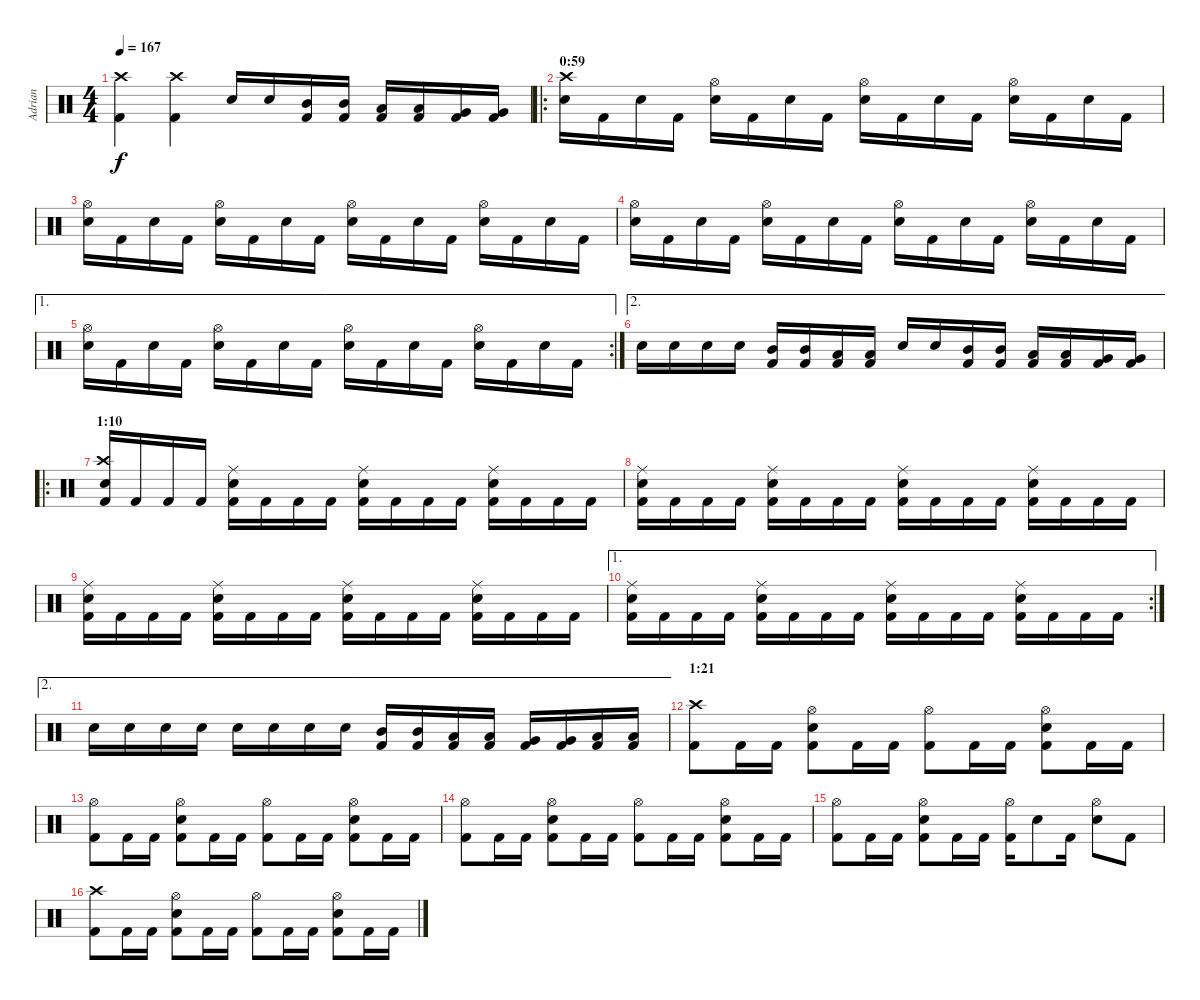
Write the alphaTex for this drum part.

\track ("Adrian" "Adrian") {instrument percussion}
\staff {score}
\articulation defaults
\ts (4 4)
\tempo 167
\clef neutral
\ks c
("Kick (hit) 2" "Crash high (hit)").4{dy f} ("Kick (hit) 2" "Crash high (hit)").4 "Snare (hit) 2".16 "Snare (hit) 2".16 ("Kick (hit) 2" "Mid Tom (hit)").16 ("Kick (hit) 2" "Mid Tom (hit)").16 ("Kick (hit) 2" "Low Tom (hit)").16 ("Kick (hit) 2" "Low Tom (hit)").16 ("Kick (hit) 2" "Very Low Tom (hit)").16 ("Kick (hit) 2" "Very Low Tom (hit)").16 |
\ro
\section ("" "0:59")
("Snare (hit) 2" "Crash high (hit)").16 "Kick (hit) 2".16 "Snare (hit) 2".16 "Kick (hit) 2".16 ("Snare (hit) 2" "Hi-Hat (open)").16 "Kick (hit) 2".16 "Snare (hit) 2".16 "Kick (hit) 2".16 ("Snare (hit) 2" "Hi-Hat (open)").16 "Kick (hit) 2".16 "Snare (hit) 2".16 "Kick (hit) 2".16 ("Snare (hit) 2" "Hi-Hat (open)").16 "Kick (hit) 2".16 "Snare (hit) 2".16 "Kick (hit) 2".16 |
("Snare (hit) 2" "Hi-Hat (open)").16 "Kick (hit) 2".16 "Snare (hit) 2".16 "Kick (hit) 2".16 ("Snare (hit) 2" "Hi-Hat (open)").16 "Kick (hit) 2".16 "Snare (hit) 2".16 "Kick (hit) 2".16 ("Snare (hit) 2" "Hi-Hat (open)").16 "Kick (hit) 2".16 "Snare (hit) 2".16 "Kick (hit) 2".16 ("Snare (hit) 2" "Hi-Hat (open)").16 "Kick (hit) 2".16 "Snare (hit) 2".16 "Kick (hit) 2".16 |
("Snare (hit) 2" "Hi-Hat (open)").16 "Kick (hit) 2".16 "Snare (hit) 2".16 "Kick (hit) 2".16 ("Snare (hit) 2" "Hi-Hat (open)").16 "Kick (hit) 2".16 "Snare (hit) 2".16 "Kick (hit) 2".16 ("Snare (hit) 2" "Hi-Hat (open)").16 "Kick (hit) 2".16 "Snare (hit) 2".16 "Kick (hit) 2".16 ("Snare (hit) 2" "Hi-Hat (open)").16 "Kick (hit) 2".16 "Snare (hit) 2".16 "Kick (hit) 2".16 |
\ae 1
\rc 2
("Snare (hit) 2" "Hi-Hat (open)").16 "Kick (hit) 2".16 "Snare (hit) 2".16 "Kick (hit) 2".16 ("Snare (hit) 2" "Hi-Hat (open)").16 "Kick (hit) 2".16 "Snare (hit) 2".16 "Kick (hit) 2".16 ("Snare (hit) 2" "Hi-Hat (open)").16 "Kick (hit) 2".16 "Snare (hit) 2".16 "Kick (hit) 2".16 ("Snare (hit) 2" "Hi-Hat (open)").16 "Kick (hit) 2".16 "Snare (hit) 2".16 "Kick (hit) 2".16 |
\ae 2 "Snare (hit) 2".16 "Snare (hit) 2".16 "Snare (hit) 2".16 "Snare (hit) 2".16
("Kick (hit) 2" "Mid Tom (hit)").16 ("Kick (hit) 2" "Mid Tom (hit)").16 ("Kick (hit) 2" "Low Tom (hit)").16 ("Kick (hit) 2" "Low Tom (hit)").16 "Snare (hit) 2".16 "Snare (hit) 2".16 ("Kick (hit) 2" "Mid Tom (hit)").16 ("Kick (hit) 2" "Mid Tom (hit)").16 ("Kick (hit) 2" "Low Tom (hit)").16 ("Kick (hit) 2" "Low Tom (hit)").16 ("Kick (hit) 2" "Very Low Tom (hit)").16 ("Kick (hit) 2" "Very Low Tom (hit)").16 |
\ro
\section ("" "1:10")
("Kick (hit) 2" "Snare (hit) 2" "Crash high (hit)").16 "Kick (hit) 2".16 "Kick (hit) 2".16 "Kick (hit) 2".16 ("Kick (hit) 2" "Snare (hit) 2" "Ride (middle)").16 "Kick (hit) 2".16 "Kick (hit) 2".16 "Kick (hit) 2".16 ("Kick (hit) 2" "Snare (hit) 2" "Ride (middle)").16 "Kick (hit) 2".16 "Kick (hit) 2".16 "Kick (hit) 2".16 ("Kick (hit) 2" "Snare (hit) 2" "Ride (middle)").16 "Kick (hit) 2".16 "Kick (hit) 2".16 "Kick (hit) 2".16 |
("Kick (hit) 2" "Snare (hit) 2" "Ride (middle)").16 "Kick (hit) 2".16 "Kick (hit) 2".16 "Kick (hit) 2".16 ("Kick (hit) 2" "Snare (hit) 2" "Ride (middle)").16 "Kick (hit) 2".16 "Kick (hit) 2".16 "Kick (hit) 2".16 ("Kick (hit) 2" "Snare (hit) 2" "Ride (middle)").16 "Kick (hit) 2".16 "Kick (hit) 2".16 "Kick (hit) 2".16 ("Kick (hit) 2" "Snare (hit) 2" "Ride (middle)").16 "Kick (hit) 2".16 "Kick (hit) 2".16 "Kick (hit) 2".16 |
("Kick (hit) 2" "Snare (hit) 2" "Ride (middle)").16 "Kick (hit) 2".16 "Kick (hit) 2".16 "Kick (hit) 2".16 ("Kick (hit) 2" "Snare (hit) 2" "Ride (middle)").16 "Kick (hit) 2".16 "Kick (hit) 2".16 "Kick (hit) 2".16 ("Kick (hit) 2" "Snare (hit) 2" "Ride (middle)").16 "Kick (hit) 2".16 "Kick (hit) 2".16 "Kick (hit) 2".16 ("Kick (hit) 2" "Snare (hit) 2" "Ride (middle)").16 "Kick (hit) 2".16 "Kick (hit) 2".16 "Kick (hit) 2".16 |
\ae 1
\rc 2
("Kick (hit) 2" "Snare (hit) 2" "Ride (middle)").16 "Kick (hit) 2".16 "Kick (hit) 2".16 "Kick (hit) 2".16 ("Kick (hit) 2" "Snare (hit) 2" "Ride (middle)").16 "Kick (hit) 2".16 "Kick (hit) 2".16 "Kick (hit) 2".16 ("Kick (hit) 2" "Snare (hit) 2" "Ride (middle)").16 "Kick (hit) 2".16 "Kick (hit) 2".16 "Kick (hit) 2".16 ("Kick (hit) 2" "Snare (hit) 2" "Ride (middle)").16 "Kick (hit) 2".16 "Kick (hit) 2".16 "Kick (hit) 2".16 |
\ae 2 "Snare (hit) 2".16 "Snare (hit) 2".16 "Snare (hit) 2".16 "Snare (hit) 2".16 "Snare (hit) 2".16 "Snare (hit) 2".16 "Snare (hit) 2".16 "Snare (hit) 2".16
("Kick (hit) 2" "Mid Tom (hit)").16 ("Kick (hit) 2" "Mid Tom (hit)").16 ("Kick (hit) 2" "Low Tom (hit)").16 ("Kick (hit) 2" "Low Tom (hit)").16 ("Kick (hit) 2" "Very Low Tom (hit)").16 ("Kick (hit) 2" "Very Low Tom (hit)").16 ("Kick (hit) 2" "Low Floor Tom (hit)").16 ("Kick (hit) 2" "Low Floor Tom (hit)").16 |
\section ("" "1:21")
("Kick (hit) 2" "Crash high (hit)").8 "Kick (hit) 2".16 "Kick (hit) 2".16 ("Kick (hit) 2" "Snare (hit) 2" "Hi-Hat (open)").8 "Kick (hit) 2".16 "Kick (hit) 2".16 ("Kick (hit) 2" "Hi-Hat (open)").8 "Kick (hit) 2".16 "Kick (hit) 2".16 ("Kick (hit) 2" "Snare (hit) 2" "Hi-Hat (open)").8 "Kick (hit) 2".16 "Kick (hit) 2".16 |
("Kick (hit) 2" "Hi-Hat (open)").8 "Kick (hit) 2".16 "Kick (hit) 2".16 ("Kick (hit) 2" "Snare (hit) 2" "Hi-Hat (open)").8 "Kick (hit) 2".16 "Kick (hit) 2".16 ("Kick (hit) 2" "Hi-Hat (open)").8 "Kick (hit) 2".16 "Kick (hit) 2".16 ("Kick (hit) 2" "Snare (hit) 2" "Hi-Hat (open)").8 "Kick (hit) 2".16 "Kick (hit) 2".16 |
("Kick (hit) 2" "Hi-Hat (open)").8 "Kick (hit) 2".16 "Kick (hit) 2".16 ("Kick (hit) 2" "Snare (hit) 2" "Hi-Hat (open)").8 "Kick (hit) 2".16 "Kick (hit) 2".16 ("Kick (hit) 2" "Hi-Hat (open)").8 "Kick (hit) 2".16 "Kick (hit) 2".16 ("Kick (hit) 2" "Snare (hit) 2" "Hi-Hat (open)").8 "Kick (hit) 2".16 "Kick (hit) 2".16 |
("Kick (hit) 2" "Hi-Hat (open)").8 "Kick (hit) 2".16 "Kick (hit) 2".16 ("Kick (hit) 2" "Snare (hit) 2" "Hi-Hat (open)").8 "Kick (hit) 2".16 "Kick (hit) 2".16 ("Kick (hit) 2" "Hi-Hat (open)").16 "Snare (hit) 2".8 "Kick (hit) 2".16 ("Snare (hit) 2" "Hi-Hat (open)").8 "Kick (hit) 2".8 |
("Kick (hit) 2" "Crash high (hit)").8 "Kick (hit) 2".16 "Kick (hit) 2".16 ("Kick (hit) 2" "Snare (hit) 2" "Hi-Hat (open)").8 "Kick (hit) 2".16 "Kick (hit) 2".16 ("Kick (hit) 2" "Hi-Hat (open)").8 "Kick (hit) 2".16 "Kick (hit) 2".16 ("Kick (hit) 2" "Snare (hit) 2" "Hi-Hat (open)").8 "Kick (hit) 2".16 "Kick (hit) 2".16
